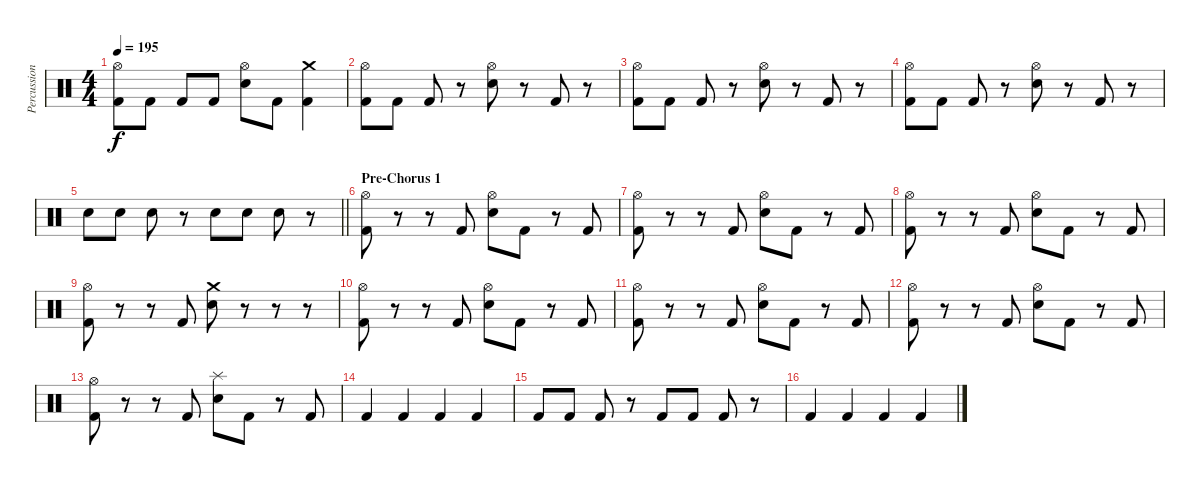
\track ("Percussion" "Percussion") {instrument percussion}
\staff {score}
\articulation defaults
\ts (4 4)
\tempo 195
\clef neutral
\ks c
("Hi-Hat (open)" "Kick (hit) 2").8{dy f} "Kick (hit) 2".8 "Kick (hit) 2".8 "Kick (hit) 2".8 ("Hi-Hat (open)" "Snare (hit) 2").8 "Kick (hit) 2".8 ("Crash medium (hit)" "Kick (hit) 2").4 |
("Hi-Hat (open)" "Kick (hit) 2").8 "Kick (hit) 2".8 "Kick (hit) 2".8 r.8 ("Hi-Hat (open)" "Snare (hit) 2").8 r.8 "Kick (hit) 2".8 r.8 |
("Hi-Hat (open)" "Kick (hit) 2").8 "Kick (hit) 2".8 "Kick (hit) 2".8 r.8 ("Hi-Hat (open)" "Snare (hit) 2").8 r.8 "Kick (hit) 2".8 r.8 |
("Hi-Hat (open)" "Kick (hit) 2").8 "Kick (hit) 2".8 "Kick (hit) 2".8 r.8 ("Hi-Hat (open)" "Snare (hit) 2").8 r.8 "Kick (hit) 2".8 r.8 |
\barLineRight lightlight "Snare (hit) 2".8 "Snare (hit) 2".8 "Snare (hit) 2".8
r.8 "Snare (hit) 2".8 "Snare (hit) 2".8 "Snare (hit) 2".8 r.8 |
\section ("" "Pre-Chorus 1")
("Hi-Hat (open)" "Kick (hit) 2").8 r.8 r.8 "Kick (hit) 2".8 ("Hi-Hat (open)" "Snare (hit) 2").8 "Kick (hit) 2".8 r.8 "Kick (hit) 2".8 |
("Hi-Hat (open)" "Kick (hit) 2").8 r.8 r.8 "Kick (hit) 2".8 ("Hi-Hat (open)" "Snare (hit) 2").8 "Kick (hit) 2".8 r.8 "Kick (hit) 2".8 |
("Hi-Hat (open)" "Kick (hit) 2").8 r.8 r.8 "Kick (hit) 2".8 ("Hi-Hat (open)" "Snare (hit) 2").8 "Kick (hit) 2".8 r.8 "Kick (hit) 2".8 |
("Hi-Hat (open)" "Kick (hit) 2").8 r.8 r.8 "Kick (hit) 2".8 ("Crash medium (hit)" "Snare (hit) 2").8 r.8 r.8 r.8 |
("Hi-Hat (open)" "Kick (hit) 2").8 r.8 r.8 "Kick (hit) 2".8 ("Hi-Hat (open)" "Snare (hit) 2").8 "Kick (hit) 2".8 r.8 "Kick (hit) 2".8 |
("Hi-Hat (open)" "Kick (hit) 2").8 r.8 r.8 "Kick (hit) 2".8 ("Hi-Hat (open)" "Snare (hit) 2").8 "Kick (hit) 2".8 r.8 "Kick (hit) 2".8 |
("Hi-Hat (open)" "Kick (hit) 2").8 r.8 r.8 "Kick (hit) 2".8 ("Hi-Hat (open)" "Snare (hit) 2").8 "Kick (hit) 2".8 r.8 "Kick (hit) 2".8 |
("Hi-Hat (open)" "Kick (hit) 2").8 r.8 r.8 "Kick (hit) 2".8 ("Splash (hit)" "Snare (hit) 2").8 "Kick (hit) 2".8 r.8 "Kick (hit) 2".8 |
"Kick (hit) 2".4 "Kick (hit) 2".4 "Kick (hit) 2".4 "Kick (hit) 2".4 |
"Kick (hit) 2".8 "Kick (hit) 2".8 "Kick (hit) 2".8 r.8 "Kick (hit) 2".8 "Kick (hit) 2".8 "Kick (hit) 2".8 r.8 |
"Kick (hit) 2".4 "Kick (hit) 2".4 "Kick (hit) 2".4 "Kick (hit) 2".4
